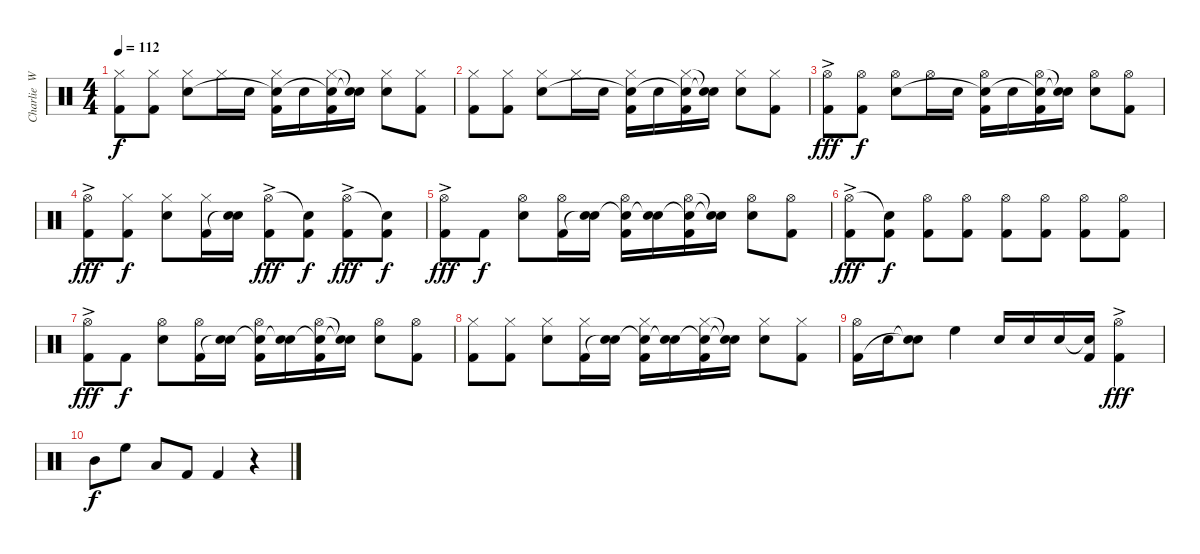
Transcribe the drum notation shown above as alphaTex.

\track ("Charlie  Watts" "Charlie  W") {instrument percussion}
\staff {score}
\articulation defaults
\ts (4 4)
\tempo 112
\clef neutral
\ks c
("Hi-Hat (closed)" "Kick (hit) 2").8{dy f} ("Hi-Hat (closed)" "Kick (hit) 2").8 ("Hi-Hat (closed)" "Snare (hit) 2").8 "Hi-Hat (closed)".16 "Snare (hit) 2".16 ("Hi-Hat (closed)" "Snare (hit)"{t} "Kick (hit) 2").16 "Snare (hit) 2".16 ("Hi-Hat (closed)" "Snare (hit)"{t} "Kick (hit) 2").16 ("Snare (hit)"{t} "Snare (hit)"{t}).16 ("Hi-Hat (closed)" "Snare (hit) 2").8 ("Hi-Hat (closed)" "Kick (hit) 2").8 |
("Hi-Hat (closed)" "Kick (hit) 2").8 ("Hi-Hat (closed)" "Kick (hit) 2").8 ("Hi-Hat (closed)" "Snare (hit) 2").8 "Hi-Hat (closed)".16 "Snare (hit) 2".16 ("Hi-Hat (closed)" "Snare (hit)"{t} "Kick (hit) 2").16 "Snare (hit) 2".16 ("Hi-Hat (closed)" "Snare (hit)"{t} "Kick (hit) 2").16 ("Snare (hit)"{t} "Snare (hit)"{t}).16 ("Hi-Hat (closed)" "Snare (hit) 2").8 ("Hi-Hat (closed)" "Kick (hit) 2").8 |
("Hi-Hat (open)"{ac} "Kick (hit) 2"{ac}).8{dy fff} ("Hi-Hat (open)" "Kick (hit) 2").8{dy f} ("Hi-Hat (open)" "Snare (hit) 2").8 "Hi-Hat (open)".16 "Snare (hit) 2".16 ("Hi-Hat (open)" "Snare (hit)"{t} "Kick (hit) 2").16 "Snare (hit) 2".16 ("Hi-Hat (open)" "Snare (hit)"{t} "Kick (hit) 2").16 ("Snare (hit)"{t} "Snare (hit)"{t}).16 ("Hi-Hat (open)" "Snare (hit) 2").8 ("Hi-Hat (open)" "Kick (hit) 2").8 |
("Hi-Hat (open)"{ac} "Kick (hit) 2"{ac}).8{dy fff} ("Hi-Hat (closed)" "Kick (hit) 2").8{dy f} ("Hi-Hat (closed)" "Snare (hit) 2").8 ("Hi-Hat (closed)" "Kick (hit) 2").16 ("Snare (hit) 2" "Snare (hit)"{t}).16 ("Hi-Hat (open)"{ac} "Kick (hit) 2").8{dy fff} ("Snare (hit)"{t} "Kick (hit) 2").8{dy f} ("Hi-Hat (open)"{ac} "Kick (hit) 2").8{dy fff} ("Snare (hit)"{t} "Kick (hit) 2").8{dy f} |
("Hi-Hat (open)"{ac} "Kick (hit) 2"{ac}).8{dy fff} "Kick (hit) 2".8{dy f} ("Hi-Hat (open)" "Snare (hit) 2").8 ("Hi-Hat (open)" "Kick (hit) 2").16 ("Snare (hit) 2" "Snare (hit)"{t}).16 ("Hi-Hat (open)" "Snare (hit)"{t} "Kick (hit) 2").16 ("Snare (hit) 2" "Snare (hit)"{t}).16 ("Hi-Hat (open)" "Snare (hit)"{t} "Kick (hit) 2").16 ("Snare (hit)"{t} "Snare (hit)"{t}).16 ("Hi-Hat (open)" "Snare (hit) 2").8 ("Hi-Hat (open)" "Kick (hit) 2").8 |
("Hi-Hat (open)"{ac} "Kick (hit) 2"{ac}).8{dy fff} ("Snare (hit)"{t} "Kick (hit) 2").8{dy f} ("Hi-Hat (open)" "Kick (hit) 2").8 ("Hi-Hat (open)" "Kick (hit) 2").8 ("Hi-Hat (open)" "Kick (hit) 2").8 ("Hi-Hat (open)" "Kick (hit) 2").8 ("Hi-Hat (open)" "Kick (hit) 2").8 ("Hi-Hat (open)" "Kick (hit) 2").8 |
("Hi-Hat (open)"{ac} "Kick (hit) 2"{ac}).8{dy fff} "Kick (hit) 2".8{dy f} ("Hi-Hat (open)" "Snare (hit) 2").8 ("Hi-Hat (open)" "Kick (hit) 2").16 ("Snare (hit) 2" "Snare (hit)"{t}).16 ("Hi-Hat (open)" "Snare (hit)"{t} "Kick (hit) 2").16 ("Snare (hit) 2" "Snare (hit)"{t}).16 ("Hi-Hat (open)" "Snare (hit)"{t} "Kick (hit) 2").16 ("Snare (hit)"{t} "Snare (hit)"{t}).16 ("Hi-Hat (open)" "Snare (hit) 2").8 ("Hi-Hat (open)" "Kick (hit) 2").8 |
("Hi-Hat (closed)" "Kick (hit) 2").8 ("Hi-Hat (closed)" "Kick (hit) 2").8 ("Hi-Hat (closed)" "Snare (hit) 2").8 ("Hi-Hat (closed)" "Kick (hit) 2").16 ("Snare (hit) 2" "Snare (hit)"{t}).16 ("Hi-Hat (closed)" "Snare (hit)"{t} "Kick (hit) 2").16 ("Snare (hit) 2" "Snare (hit)"{t}).16 ("Hi-Hat (closed)" "Snare (hit)"{t} "Kick (hit) 2").16 ("Snare (hit)"{t} "Snare (hit)"{t}).16 ("Hi-Hat (closed)" "Snare (hit) 2").8 ("Hi-Hat (closed)" "Kick (hit) 2").8 |
("Hi-Hat (open)" "Kick (hit) 2").16 "Snare (hit) 2".16 ("Snare (hit)"{t} "Snare (hit)"{t}).8 "High Floor Tom (hit)".4 "Snare (hit) 2".16 "Snare (hit) 2".16 "Snare (hit) 2".16 ("Snare (hit)"{t} "Kick (hit) 2").16 ("Hi-Hat (open)"{ac} "Kick (hit) 2"{ac}).4{dy fff} |
"Mid Tom (hit)".8{dy f} "High Floor Tom (hit)".8 "Low Tom (hit)".8 "Kick (hit) 2".8 "Kick (hit) 2".4 r.4
